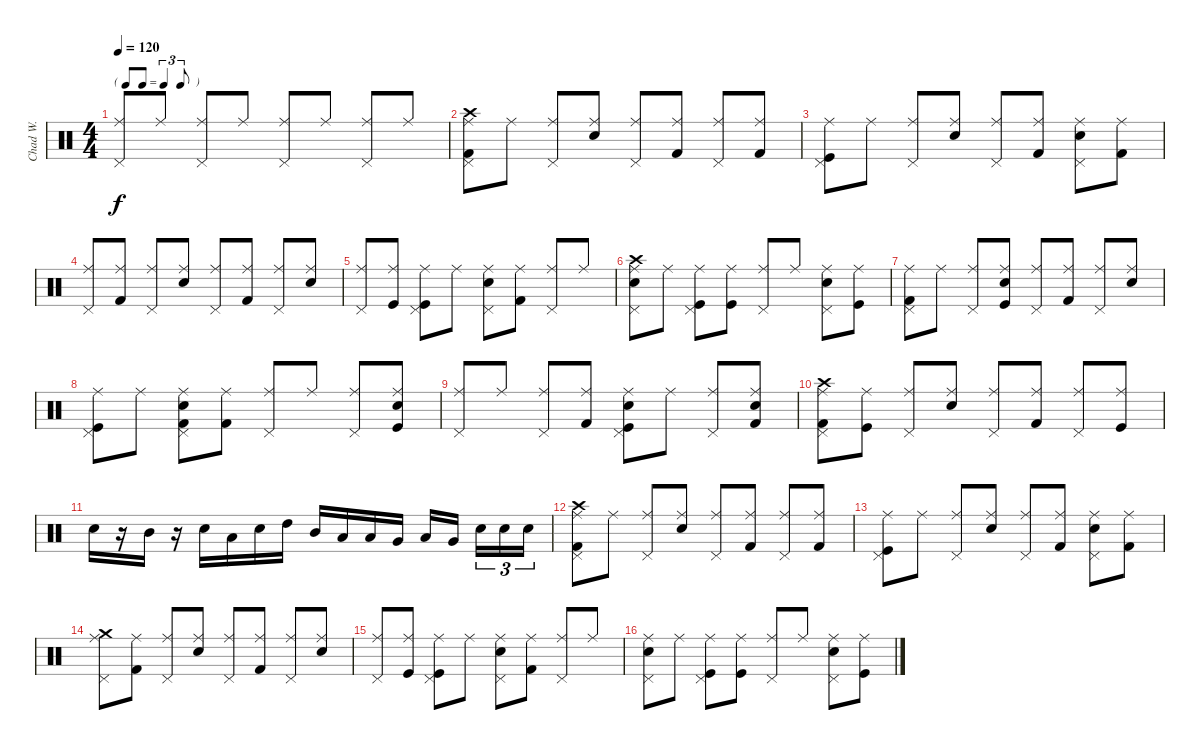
\track ("Chad W." "Chad W.") {instrument percussion bank 177}
\staff {score}
\articulation defaults
\ts (4 4)
\tf triplet8th
\tempo 120
\clef neutral
\ks c
("Ride (middle)" "Pedal Hi-Hat (hit)").8{dy f} "Ride (middle)".8 ("Ride (middle)" "Pedal Hi-Hat (hit)").8 "Ride (middle)".8 ("Ride (middle)" "Pedal Hi-Hat (hit)").8 "Ride (middle)".8 ("Ride (middle)" "Pedal Hi-Hat (hit)").8 "Ride (middle)".8 |
("Crash high (hit)" "Ride (middle)" "Pedal Hi-Hat (hit)" "Kick (hit) 2").8 "Ride (middle)".8 ("Ride (middle)" "Pedal Hi-Hat (hit)").8 ("Ride (middle)" "Electric Snare (hit)").8 ("Ride (middle)" "Pedal Hi-Hat (hit)").8 ("Ride (middle)" "Kick (hit) 2").8 ("Ride (middle)" "Pedal Hi-Hat (hit)").8 ("Ride (middle)" "Kick (hit) 2").8 |
("Ride (middle)" "Pedal Hi-Hat (hit)" "Kick (hit)").8 "Ride (middle)".8 ("Ride (middle)" "Pedal Hi-Hat (hit)").8 ("Ride (middle)" "Electric Snare (hit)").8 ("Ride (middle)" "Pedal Hi-Hat (hit)").8 ("Ride (middle)" "Kick (hit) 2").8 ("Ride (middle)" "Electric Snare (hit)" "Pedal Hi-Hat (hit)").8 ("Ride (middle)" "Kick (hit) 2").8 |
("Ride (middle)" "Pedal Hi-Hat (hit)").8 ("Ride (middle)" "Kick (hit) 2").8 ("Ride (middle)" "Pedal Hi-Hat (hit)").8 ("Ride (middle)" "Electric Snare (hit)").8 ("Ride (middle)" "Pedal Hi-Hat (hit)").8 ("Ride (middle)" "Kick (hit) 2").8 ("Ride (middle)" "Pedal Hi-Hat (hit)").8 ("Ride (middle)" "Electric Snare (hit)").8 |
("Ride (middle)" "Pedal Hi-Hat (hit)").8 ("Ride (middle)" "Kick (hit)").8 ("Ride (middle)" "Pedal Hi-Hat (hit)" "Kick (hit)").8 "Ride (middle)".8 ("Ride (middle)" "Electric Snare (hit)" "Pedal Hi-Hat (hit)").8 ("Ride (middle)" "Kick (hit) 2").8 ("Ride (middle)" "Pedal Hi-Hat (hit)").8 "Ride (middle)".8 |
("Crash high (hit)" "Ride (middle)" "Electric Snare (hit)" "Pedal Hi-Hat (hit)").8 "Ride (middle)".8 ("Ride (middle)" "Pedal Hi-Hat (hit)" "Kick (hit)").8 ("Ride (middle)" "Kick (hit)").8 ("Ride (middle)" "Pedal Hi-Hat (hit)").8 "Ride (middle)".8 ("Ride (middle)" "Electric Snare (hit)" "Pedal Hi-Hat (hit)").8 ("Ride (middle)" "Kick (hit)").8 |
("Ride (middle)" "Pedal Hi-Hat (hit)" "Kick (hit) 2").8 "Ride (middle)".8 ("Ride (middle)" "Pedal Hi-Hat (hit)").8 ("Ride (middle)" "Electric Snare (hit)" "Kick (hit)").8 ("Ride (middle)" "Pedal Hi-Hat (hit)").8 ("Ride (middle)" "Kick (hit) 2").8 ("Ride (middle)" "Pedal Hi-Hat (hit)").8 ("Ride (middle)" "Electric Snare (hit)").8 |
("Ride (middle)" "Pedal Hi-Hat (hit)" "Kick (hit)").8 "Ride (middle)".8 ("Ride (middle)" "Electric Snare (hit)" "Pedal Hi-Hat (hit)" "Kick (hit) 2").8 ("Ride (middle)" "Kick (hit) 2").8 ("Ride (middle)" "Pedal Hi-Hat (hit)").8 "Ride (middle)".8 ("Ride (middle)" "Pedal Hi-Hat (hit)").8 ("Ride (middle)" "Electric Snare (hit)" "Kick (hit)").8 |
("Ride (middle)" "Pedal Hi-Hat (hit)").8 "Ride (middle)".8 ("Ride (middle)" "Pedal Hi-Hat (hit)").8 ("Ride (middle)" "Kick (hit) 2").8 ("Ride (middle)" "Electric Snare (hit)" "Pedal Hi-Hat (hit)" "Kick (hit)").8 "Ride (middle)".8 ("Ride (middle)" "Pedal Hi-Hat (hit)").8 ("Ride (middle)" "Electric Snare (hit)" "Kick (hit) 2").8 |
("Crash high (hit)" "Ride (middle)" "Pedal Hi-Hat (hit)" "Kick (hit) 2").8 ("Ride (middle)" "Kick (hit)").8 ("Ride (middle)" "Pedal Hi-Hat (hit)").8 ("Ride (middle)" "Electric Snare (hit)").8 ("Ride (middle)" "Pedal Hi-Hat (hit)").8 ("Ride (middle)" "Kick (hit) 2").8 ("Ride (middle)" "Pedal Hi-Hat (hit)").8 ("Ride (middle)" "Kick (hit)").8 |
"Electric Snare (hit)".16 r.16 "Mid Tom (hit)".16 r.16 "Electric Snare (hit)".16 "Low Tom (hit)".16 "Electric Snare (hit)".16 "High Tom (hit)".16 "Mid Tom (hit)".16 "Low Tom (hit)".16 "Low Tom (hit)".16 "Very Low Tom (hit)".16 "Low Floor Tom (hit)".16 "Very Low Tom (hit)".16{beam splitsecondary} "Electric Snare (hit)".16{tu (3 2)} "Electric Snare (hit)".16{tu (3 2)} "Electric Snare (hit)".16{tu (3 2)} |
("Crash high (hit)" "Ride (middle)" "Pedal Hi-Hat (hit)" "Kick (hit) 2").8 "Ride (middle)".8 ("Ride (middle)" "Pedal Hi-Hat (hit)").8 ("Ride (middle)" "Electric Snare (hit)").8 ("Ride (middle)" "Pedal Hi-Hat (hit)").8 ("Ride (middle)" "Kick (hit) 2").8 ("Ride (middle)" "Pedal Hi-Hat (hit)").8 ("Ride (middle)" "Kick (hit) 2").8 |
("Ride (middle)" "Pedal Hi-Hat (hit)" "Kick (hit)").8 "Ride (middle)".8 ("Ride (middle)" "Pedal Hi-Hat (hit)").8 ("Ride (middle)" "Electric Snare (hit)").8 ("Ride (middle)" "Pedal Hi-Hat (hit)").8 ("Ride (middle)" "Kick (hit) 2").8 ("Ride (middle)" "Electric Snare (hit)" "Pedal Hi-Hat (hit)").8 ("Ride (middle)" "Kick (hit) 2").8 |
("Crash medium (hit)" "Ride (middle)" "Pedal Hi-Hat (hit)").8 ("Ride (middle)" "Kick (hit) 2").8 ("Ride (middle)" "Pedal Hi-Hat (hit)").8 ("Ride (middle)" "Electric Snare (hit)").8 ("Ride (middle)" "Pedal Hi-Hat (hit)").8 ("Ride (middle)" "Kick (hit) 2").8 ("Ride (middle)" "Pedal Hi-Hat (hit)").8 ("Ride (middle)" "Electric Snare (hit)").8 |
("Ride (middle)" "Pedal Hi-Hat (hit)").8 ("Ride (middle)" "Kick (hit)").8 ("Ride (middle)" "Pedal Hi-Hat (hit)" "Kick (hit)").8 "Ride (middle)".8 ("Ride (middle)" "Electric Snare (hit)" "Pedal Hi-Hat (hit)").8 ("Ride (middle)" "Kick (hit) 2").8 ("Ride (middle)" "Pedal Hi-Hat (hit)").8 "Ride (middle)".8 |
("Ride (middle)" "Electric Snare (hit)" "Pedal Hi-Hat (hit)").8 "Ride (middle)".8 ("Ride (middle)" "Pedal Hi-Hat (hit)" "Kick (hit)").8 ("Ride (middle)" "Kick (hit)").8 ("Ride (middle)" "Pedal Hi-Hat (hit)").8 "Ride (middle)".8 ("Ride (middle)" "Electric Snare (hit)" "Pedal Hi-Hat (hit)").8 ("Ride (middle)" "Kick (hit)").8
